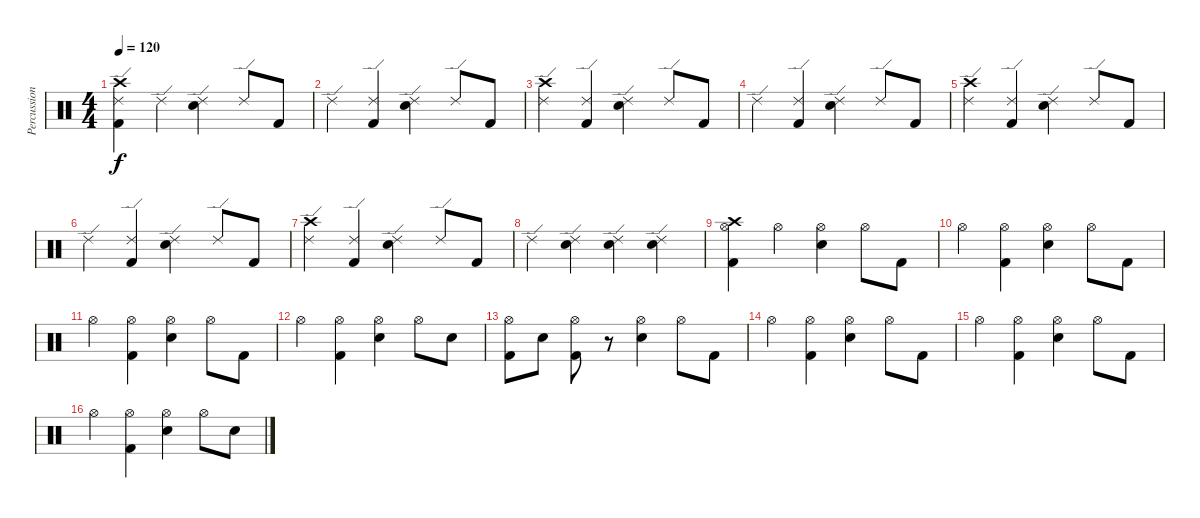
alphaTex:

\track ("Percussion" "Percussion") {instrument percussion}
\staff {score}
\articulation defaults
\ts (4 4)
\tempo 120
\clef neutral
\ks c
("Crash high (hit)" "Ride (edge) 2" "Kick (hit) 2").4{dy f} "Ride (edge) 2".4 ("Ride (edge) 2" "Electric Snare (hit)").4 "Ride (edge) 2".8 "Kick (hit) 2".8 |
"Ride (edge) 2".4 ("Ride (edge) 2" "Kick (hit) 2").4 ("Ride (edge) 2" "Electric Snare (hit)").4 "Ride (edge) 2".8 "Kick (hit) 2".8 |
("Crash high (hit)" "Ride (edge) 2").4 ("Ride (edge) 2" "Kick (hit) 2").4 ("Ride (edge) 2" "Electric Snare (hit)").4 "Ride (edge) 2".8 "Kick (hit) 2".8 |
"Ride (edge) 2".4 ("Ride (edge) 2" "Kick (hit) 2").4 ("Ride (edge) 2" "Electric Snare (hit)").4 "Ride (edge) 2".8 "Kick (hit) 2".8 |
("Crash high (hit)" "Ride (edge) 2").4 ("Ride (edge) 2" "Kick (hit) 2").4 ("Ride (edge) 2" "Electric Snare (hit)").4 "Ride (edge) 2".8 "Kick (hit) 2".8 |
"Ride (edge) 2".4 ("Ride (edge) 2" "Kick (hit) 2").4 ("Ride (edge) 2" "Electric Snare (hit)").4 "Ride (edge) 2".8 "Kick (hit) 2".8 |
("Crash high (hit)" "Ride (edge) 2").4 ("Ride (edge) 2" "Kick (hit) 2").4 ("Ride (edge) 2" "Electric Snare (hit)").4 "Ride (edge) 2".8 "Kick (hit) 2".8 |
"Ride (edge) 2".4 ("Ride (edge) 2" "Electric Snare (hit)").4 ("Ride (edge) 2" "Electric Snare (hit)").4 ("Ride (edge) 2" "Electric Snare (hit)").4 |
("Crash high (hit)" "Hi-Hat (open)" "Kick (hit) 2").4 "Hi-Hat (open)".4 ("Hi-Hat (open)" "Electric Snare (hit)").4 "Hi-Hat (open)".8 "Kick (hit) 2".8 |
"Hi-Hat (open)".4 ("Hi-Hat (open)" "Kick (hit) 2").4 ("Hi-Hat (open)" "Electric Snare (hit)").4 "Hi-Hat (open)".8 "Kick (hit) 2".8 |
"Hi-Hat (open)".4 ("Hi-Hat (open)" "Kick (hit) 2").4 ("Hi-Hat (open)" "Electric Snare (hit)").4 "Hi-Hat (open)".8 "Kick (hit) 2".8 |
"Hi-Hat (open)".4 ("Hi-Hat (open)" "Kick (hit) 2").4 ("Hi-Hat (open)" "Electric Snare (hit)").4 "Hi-Hat (open)".8 "Electric Snare (hit)".8 |
("Hi-Hat (open)" "Kick (hit) 2").8 "Electric Snare (hit)".8 ("Hi-Hat (open)" "Kick (hit) 2").8 r.8 ("Hi-Hat (open)" "Electric Snare (hit)").4 "Hi-Hat (open)".8 "Kick (hit) 2".8 |
"Hi-Hat (open)".4 ("Hi-Hat (open)" "Kick (hit) 2").4 ("Hi-Hat (open)" "Electric Snare (hit)").4 "Hi-Hat (open)".8 "Kick (hit) 2".8 |
"Hi-Hat (open)".4 ("Hi-Hat (open)" "Kick (hit) 2").4 ("Hi-Hat (open)" "Electric Snare (hit)").4 "Hi-Hat (open)".8 "Kick (hit) 2".8 |
"Hi-Hat (open)".4 ("Hi-Hat (open)" "Kick (hit) 2").4 ("Hi-Hat (open)" "Electric Snare (hit)").4 "Hi-Hat (open)".8 "Electric Snare (hit)".8
